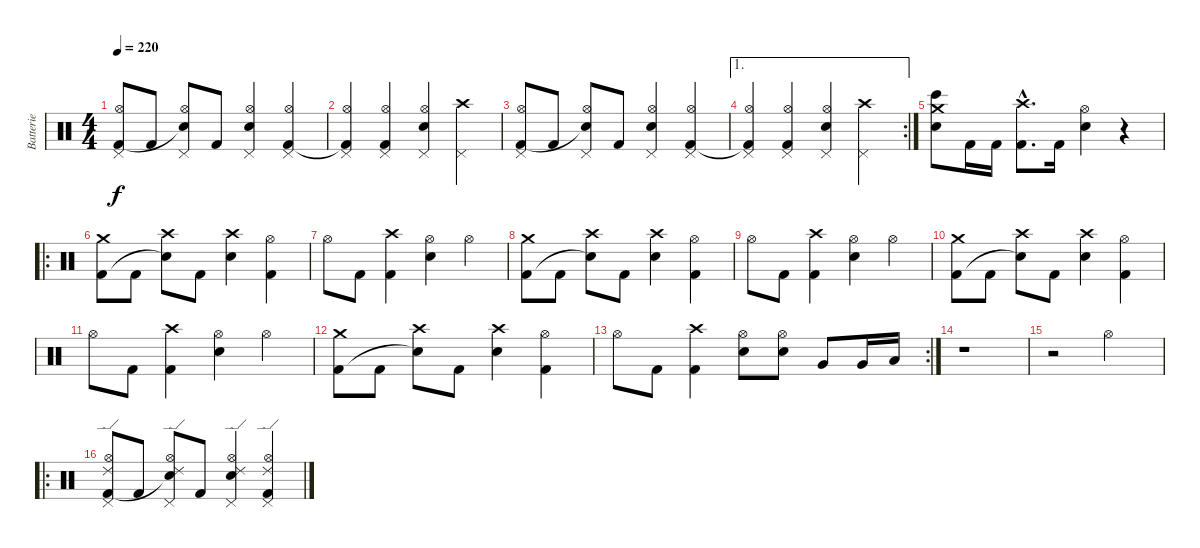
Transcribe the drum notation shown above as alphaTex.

\track ("Batterie" "Batterie") {instrument percussion}
\staff {score}
\articulation defaults
\ts (4 4)
\tempo 220
\clef neutral
\ks c
("Pedal Hi-Hat (hit)" "Hi-Hat (open)" "Kick (hit) 2").8{dy f} "Kick (hit) 2".8 ("Pedal Hi-Hat (hit)" "Hi-Hat (open)" "Snare (hit)"{t}).8 "Kick (hit) 2".8 ("Pedal Hi-Hat (hit)" "Hi-Hat (open)" "Electric Snare (hit)").4 ("Pedal Hi-Hat (hit)" "Hi-Hat (open)" "Kick (hit) 2").4 |
("Pedal Hi-Hat (hit)" "Hi-Hat (open)" "Kick (hit) 2"{t}).4 ("Pedal Hi-Hat (hit)" "Hi-Hat (open)" "Kick (hit) 2").4 ("Pedal Hi-Hat (hit)" "Hi-Hat (open)" "Electric Snare (hit)").4 ("Pedal Hi-Hat (hit)" "Crash high (hit)").4 |
("Pedal Hi-Hat (hit)" "Hi-Hat (open)" "Kick (hit) 2").8 "Kick (hit) 2".8 ("Pedal Hi-Hat (hit)" "Hi-Hat (open)" "Snare (hit)"{t}).8 "Kick (hit) 2".8 ("Pedal Hi-Hat (hit)" "Hi-Hat (open)" "Electric Snare (hit)").4 ("Pedal Hi-Hat (hit)" "Hi-Hat (open)" "Kick (hit) 2").4 |
\ae 1
\rc 2
("Pedal Hi-Hat (hit)" "Hi-Hat (open)" "Kick (hit) 2"{t}).4 ("Pedal Hi-Hat (hit)" "Hi-Hat (open)" "Kick (hit) 2").4 ("Pedal Hi-Hat (hit)" "Hi-Hat (open)" "Electric Snare (hit)").4 ("Pedal Hi-Hat (hit)" "Crash high (hit)").4 |
("Crash medium (hit)" "Electric Snare (hit)" "Bongo High (hit)").8 "Kick (hit) 2".16 "Kick (hit) 2".16 ("Crash high (hit)"{hac} "Kick (hit) 2"{hac}).8{d} "Kick (hit) 2".16 ("Hi-Hat (open)" "Electric Snare (hit)").4 r.4 |
\ro
("Crash medium (hit)" "Kick (hit) 2").8 "Kick (hit) 2".8 ("Crash high (hit)" "Snare (hit)"{t}).8 "Kick (hit) 2".8 ("Crash high (hit)" "Electric Snare (hit)").4 ("Hi-Hat (open)" "Kick (hit) 2").4 |
"Hi-Hat (open)".8 "Kick (hit) 2".8 ("Crash high (hit)" "Kick (hit) 2").4 ("Hi-Hat (open)" "Electric Snare (hit)").4 "Hi-Hat (open)".4 |
("Crash medium (hit)" "Kick (hit) 2").8 "Kick (hit) 2".8 ("Crash high (hit)" "Snare (hit)"{t}).8 "Kick (hit) 2".8 ("Crash high (hit)" "Electric Snare (hit)").4 ("Hi-Hat (open)" "Kick (hit) 2").4 |
"Hi-Hat (open)".8 "Kick (hit) 2".8 ("Crash high (hit)" "Kick (hit) 2").4 ("Hi-Hat (open)" "Electric Snare (hit)").4 "Hi-Hat (open)".4 |
("Crash medium (hit)" "Kick (hit) 2").8 "Kick (hit) 2".8 ("Crash high (hit)" "Snare (hit)"{t}).8 "Kick (hit) 2".8 ("Crash high (hit)" "Electric Snare (hit)").4 ("Hi-Hat (open)" "Kick (hit) 2").4 |
"Hi-Hat (open)".8 "Kick (hit) 2".8 ("Crash high (hit)" "Kick (hit) 2").4 ("Hi-Hat (open)" "Electric Snare (hit)").4 "Hi-Hat (open)".4 |
("Crash medium (hit)" "Kick (hit) 2").8 "Kick (hit) 2".8 ("Crash high (hit)" "Snare (hit)"{t}).8 "Kick (hit) 2".8 ("Crash high (hit)" "Electric Snare (hit)").4 ("Hi-Hat (open)" "Kick (hit) 2").4 |
\rc 2 "Hi-Hat (open)".8 "Kick (hit) 2".8
("Crash high (hit)" "Kick (hit) 2").4 ("Hi-Hat (open)" "Electric Snare (hit)").8 ("Hi-Hat (open)" "Electric Snare (hit)").8 "Very Low Tom (hit)".8 "Very Low Tom (hit)".16 "Low Floor Tom (hit)".16 |
r.1 |
r.2 "Hi-Hat (open)".2 |
\ro
("Ride (edge) 2" "Pedal Hi-Hat (hit)" "Hi-Hat (open)" "Kick (hit) 2").8 "Kick (hit) 2".8 ("Ride (edge) 2" "Pedal Hi-Hat (hit)" "Hi-Hat (open)" "Snare (hit)"{t}).8 "Kick (hit) 2".8 ("Ride (edge) 2" "Pedal Hi-Hat (hit)" "Hi-Hat (open)" "Electric Snare (hit)").4 ("Ride (edge) 2" "Pedal Hi-Hat (hit)" "Hi-Hat (open)" "Kick (hit) 2").4
